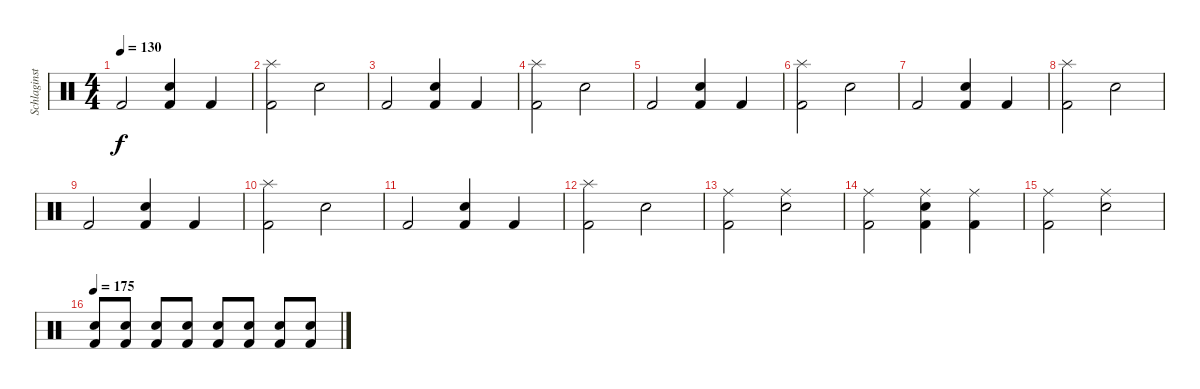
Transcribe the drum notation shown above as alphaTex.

\track ("Schlaginstrumente - Auswahl" "Schlaginst") {instrument percussion}
\staff {score}
\articulation defaults
\ts (4 4)
\tempo 130
\clef neutral
\ks c "Kick (hit) 2".2{dy f}
("Kick (hit) 2" "Snare (hit) 2").4 "Kick (hit) 2".4 |
("Splash (hit)" "Kick (hit) 2").2 "Snare (hit) 2".2 |
"Kick (hit) 2".2 ("Kick (hit) 2" "Snare (hit) 2").4 "Kick (hit) 2".4 |
("Splash (hit)" "Kick (hit) 2").2 "Snare (hit) 2".2 |
"Kick (hit) 2".2 ("Kick (hit) 2" "Snare (hit) 2").4 "Kick (hit) 2".4 |
("Splash (hit)" "Kick (hit) 2").2 "Snare (hit) 2".2 |
"Kick (hit) 2".2 ("Kick (hit) 2" "Snare (hit) 2").4 "Kick (hit) 2".4 |
("Splash (hit)" "Kick (hit) 2").2 "Snare (hit) 2".2 |
"Kick (hit) 2".2 ("Kick (hit) 2" "Snare (hit) 2").4 "Kick (hit) 2".4 |
("Splash (hit)" "Kick (hit) 2").2 "Snare (hit) 2".2 |
"Kick (hit) 2".2 ("Kick (hit) 2" "Snare (hit) 2").4 "Kick (hit) 2".4 |
("Splash (hit)" "Kick (hit) 2").2 "Snare (hit) 2".2 |
("Ride (middle)" "Kick (hit) 2").2 ("Ride (middle)" "Snare (hit) 2").2 |
("Ride (middle)" "Kick (hit) 2").2 ("Ride (middle)" "Kick (hit) 2" "Snare (hit) 2").4 ("Ride (middle)" "Kick (hit) 2").4 |
("Ride (middle)" "Kick (hit) 2").2 ("Ride (middle)" "Snare (hit) 2").2 |
\tempo 175
("Kick (hit) 2" "Snare (hit) 2").8 ("Kick (hit) 2" "Snare (hit) 2").8 ("Kick (hit) 2" "Snare (hit) 2").8 ("Kick (hit) 2" "Snare (hit) 2").8 ("Kick (hit) 2" "Snare (hit) 2").8 ("Kick (hit) 2" "Snare (hit) 2").8 ("Kick (hit) 2" "Snare (hit) 2").8 ("Kick (hit) 2" "Snare (hit) 2").8
